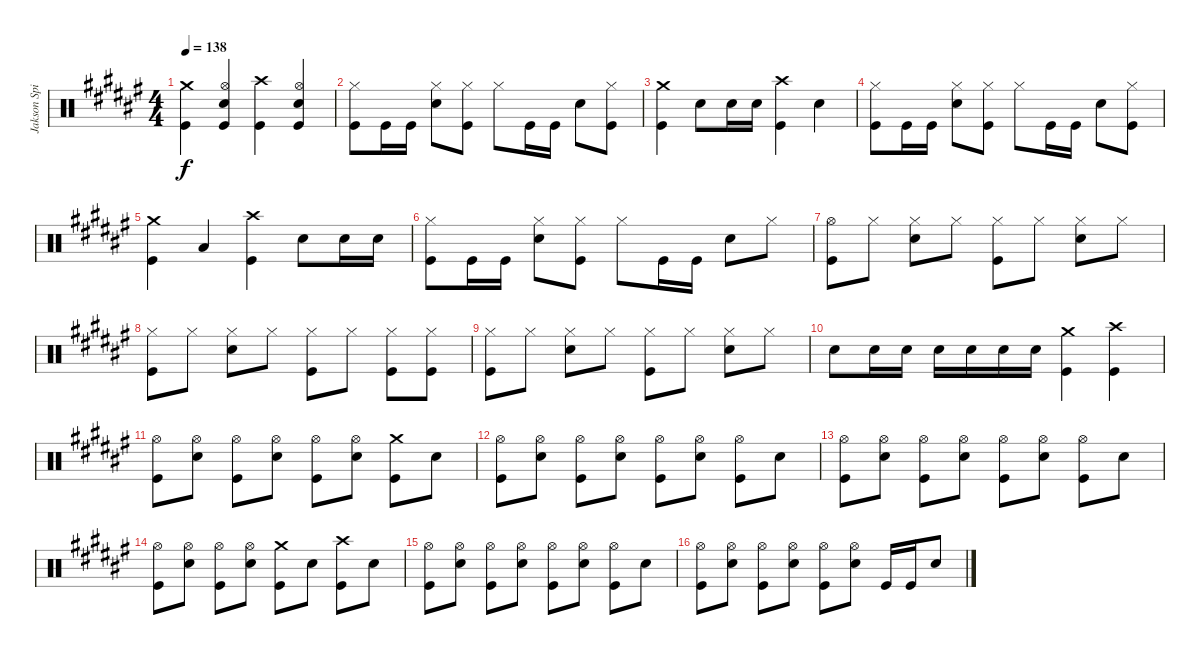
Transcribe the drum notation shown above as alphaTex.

\track ("Jakson Spires" "Jakson Spi") {instrument percussion}
\staff {score}
\articulation defaults
\ts (4 4)
\tempo 138
\clef neutral
\ks f#
("Crash medium (hit)" "Kick (hit)").4{dy f} ("Hi-Hat (open)" "Snare (hit) 2" "Kick (hit)").4 ("Crash high (hit)" "Kick (hit)").4 ("Hi-Hat (open)" "Snare (hit) 2" "Kick (hit)").4 |
("Hi-Hat (closed)" "Kick (hit)").8 "Kick (hit)".16 "Kick (hit)".16 ("Hi-Hat (closed)" "Snare (hit) 2").8 ("Hi-Hat (closed)" "Kick (hit)").8 "Hi-Hat (closed)".8 "Kick (hit)".16 "Kick (hit)".16 "Snare (hit) 2".8 ("Hi-Hat (closed)" "Kick (hit)").8 |
("Crash medium (hit)" "Kick (hit)").4 "Snare (hit) 2".8 "Snare (hit) 2".16 "Snare (hit) 2".16 ("Crash high (hit)" "Kick (hit)").4 "Snare (hit) 2".4 |
("Hi-Hat (closed)" "Kick (hit)").8 "Kick (hit)".16 "Kick (hit)".16 ("Hi-Hat (closed)" "Snare (hit) 2").8 ("Hi-Hat (closed)" "Kick (hit)").8 "Hi-Hat (closed)".8 "Kick (hit)".16 "Kick (hit)".16 "Snare (hit) 2".8 ("Hi-Hat (closed)" "Kick (hit)").8 |
("Crash medium (hit)" "Kick (hit)").4 "Low Tom (hit)".4 ("Crash high (hit)" "Kick (hit)").4 "Snare (hit) 2".8 "Snare (hit) 2".16 "Snare (hit) 2".16 |
("Hi-Hat (closed)" "Kick (hit)").8 "Kick (hit)".16 "Kick (hit)".16 ("Hi-Hat (closed)" "Snare (hit) 2").8 ("Hi-Hat (closed)" "Kick (hit)").8 "Hi-Hat (closed)".8 "Kick (hit)".16 "Kick (hit)".16 "Snare (hit) 2".8 "Hi-Hat (closed)".8 |
("Hi-Hat (open)" "Kick (hit)").8 "Hi-Hat (closed)".8 ("Hi-Hat (closed)" "Snare (hit) 2").8 "Hi-Hat (closed)".8 ("Hi-Hat (closed)" "Kick (hit)").8 "Hi-Hat (closed)".8 ("Hi-Hat (closed)" "Snare (hit) 2").8 "Hi-Hat (closed)".8 |
("Hi-Hat (closed)" "Kick (hit)").8 "Hi-Hat (closed)".8 ("Hi-Hat (closed)" "Snare (hit) 2").8 "Hi-Hat (closed)".8 ("Hi-Hat (closed)" "Kick (hit)").8 "Hi-Hat (closed)".8 ("Hi-Hat (closed)" "Kick (hit)").8 ("Hi-Hat (closed)" "Kick (hit)").8 |
("Hi-Hat (closed)" "Kick (hit)").8 "Hi-Hat (closed)".8 ("Hi-Hat (closed)" "Snare (hit) 2").8 "Hi-Hat (closed)".8 ("Hi-Hat (closed)" "Kick (hit)").8 "Hi-Hat (closed)".8 ("Hi-Hat (closed)" "Snare (hit) 2").8 "Hi-Hat (closed)".8 |
"Snare (hit) 2".8 "Snare (hit) 2".16 "Snare (hit) 2".16 "Snare (hit) 2".16 "Snare (hit) 2".16 "Snare (hit) 2".16 "Snare (hit) 2".16 ("Crash medium (hit)" "Kick (hit)").4 ("Crash high (hit)" "Kick (hit)").4 |
("Hi-Hat (open)" "Kick (hit)").8 ("Hi-Hat (open)" "Snare (hit) 2").8 ("Hi-Hat (open)" "Kick (hit)").8 ("Hi-Hat (open)" "Snare (hit) 2").8 ("Hi-Hat (open)" "Kick (hit)").8 ("Hi-Hat (open)" "Snare (hit) 2").8 ("Crash medium (hit)" "Kick (hit)").8 "Snare (hit) 2".8 |
("Hi-Hat (open)" "Kick (hit)").8 ("Hi-Hat (open)" "Snare (hit) 2").8 ("Hi-Hat (open)" "Kick (hit)").8 ("Hi-Hat (open)" "Snare (hit) 2").8 ("Hi-Hat (open)" "Kick (hit)").8 ("Hi-Hat (open)" "Snare (hit) 2").8 ("Hi-Hat (open)" "Kick (hit)").8 "Snare (hit) 2".8 |
("Hi-Hat (open)" "Kick (hit)").8 ("Hi-Hat (open)" "Snare (hit) 2").8 ("Hi-Hat (open)" "Kick (hit)").8 ("Hi-Hat (open)" "Snare (hit) 2").8 ("Hi-Hat (open)" "Kick (hit)").8 ("Hi-Hat (open)" "Snare (hit) 2").8 ("Hi-Hat (open)" "Kick (hit)").8 "Snare (hit) 2".8 |
("Hi-Hat (open)" "Kick (hit)").8 ("Hi-Hat (open)" "Snare (hit) 2").8 ("Hi-Hat (open)" "Kick (hit)").8 ("Hi-Hat (open)" "Snare (hit) 2").8 ("Crash medium (hit)" "Kick (hit)").8 "Snare (hit) 2".8 ("Crash high (hit)" "Kick (hit)").8 "Snare (hit) 2".8 |
("Hi-Hat (open)" "Kick (hit)").8 ("Hi-Hat (open)" "Snare (hit) 2").8 ("Hi-Hat (open)" "Kick (hit)").8 ("Hi-Hat (open)" "Snare (hit) 2").8 ("Hi-Hat (open)" "Kick (hit)").8 ("Hi-Hat (open)" "Snare (hit) 2").8 ("Hi-Hat (open)" "Kick (hit)").8 "Snare (hit) 2".8 |
("Hi-Hat (open)" "Kick (hit)").8 ("Hi-Hat (open)" "Snare (hit) 2").8 ("Hi-Hat (open)" "Kick (hit)").8 ("Hi-Hat (open)" "Snare (hit) 2").8 ("Hi-Hat (open)" "Kick (hit)").8 ("Hi-Hat (open)" "Snare (hit) 2").8 "Kick (hit)".16 "Kick (hit)".16 "Snare (hit) 2".8
